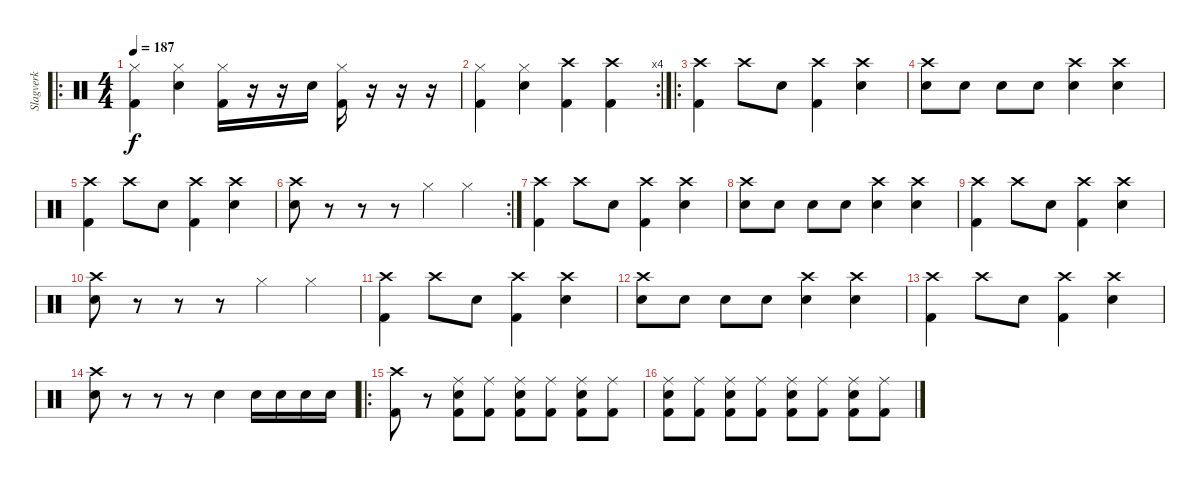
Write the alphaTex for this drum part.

\track ("Slagverk" "Slagverk") {instrument percussion}
\staff {score}
\articulation defaults
\ro
\ts (4 4)
\tempo 187
\clef neutral
\ks c
("Hi-Hat (closed)" "Kick (hit) 2").4{dy f} ("Hi-Hat (closed)" "Electric Snare (hit)").4 ("Hi-Hat (closed)" "Kick (hit) 2").16 r.16 r.16 "Electric Snare (hit)".16 ("Hi-Hat (closed)" "Kick (hit) 2").16 r.16 r.16 r.16 |
\rc 4
("Hi-Hat (closed)" "Kick (hit) 2").4 ("Hi-Hat (closed)" "Electric Snare (hit)").4 ("Crash high (hit)" "Kick (hit) 2").4 ("Crash high (hit)" "Kick (hit) 2").4 |
\ro
("Crash high (hit)" "Kick (hit) 2").4 "Crash high (hit)".8 "Electric Snare (hit)".8 ("Crash high (hit)" "Kick (hit) 2").4 ("Crash high (hit)" "Electric Snare (hit)").4 |
("Electric Snare (hit)" "Crash high (hit)").8 "Electric Snare (hit)".8 "Electric Snare (hit)".8 "Electric Snare (hit)".8 ("Electric Snare (hit)" "Crash high (hit)").4 ("Electric Snare (hit)" "Crash high (hit)").4 |
("Crash high (hit)" "Kick (hit) 2").4 "Crash high (hit)".8 "Electric Snare (hit)".8 ("Crash high (hit)" "Kick (hit) 2").4 ("Crash high (hit)" "Electric Snare (hit)").4 |
\rc 2
("Electric Snare (hit)" "Crash high (hit)").8 r.8 r.8 r.8 "Hi-Hat (closed)".4 "Hi-Hat (closed)".4 |
("Crash high (hit)" "Kick (hit) 2").4 "Crash high (hit)".8 "Electric Snare (hit)".8 ("Crash high (hit)" "Kick (hit) 2").4 ("Crash high (hit)" "Electric Snare (hit)").4 |
("Electric Snare (hit)" "Crash high (hit)").8 "Electric Snare (hit)".8 "Electric Snare (hit)".8 "Electric Snare (hit)".8 ("Electric Snare (hit)" "Crash high (hit)").4 ("Electric Snare (hit)" "Crash high (hit)").4 |
("Crash high (hit)" "Kick (hit) 2").4 "Crash high (hit)".8 "Electric Snare (hit)".8 ("Crash high (hit)" "Kick (hit) 2").4 ("Crash high (hit)" "Electric Snare (hit)").4 |
("Electric Snare (hit)" "Crash high (hit)").8 r.8 r.8 r.8 "Hi-Hat (closed)".4 "Hi-Hat (closed)".4 |
("Crash high (hit)" "Kick (hit) 2").4 "Crash high (hit)".8 "Electric Snare (hit)".8 ("Crash high (hit)" "Kick (hit) 2").4 ("Crash high (hit)" "Electric Snare (hit)").4 |
("Electric Snare (hit)" "Crash high (hit)").8 "Electric Snare (hit)".8 "Electric Snare (hit)".8 "Electric Snare (hit)".8 ("Electric Snare (hit)" "Crash high (hit)").4 ("Electric Snare (hit)" "Crash high (hit)").4 |
("Crash high (hit)" "Kick (hit) 2").4 "Crash high (hit)".8 "Electric Snare (hit)".8 ("Crash high (hit)" "Kick (hit) 2").4 ("Crash high (hit)" "Electric Snare (hit)").4 |
("Electric Snare (hit)" "Crash high (hit)").8 r.8 r.8 r.8 "Electric Snare (hit)".4 "Electric Snare (hit)".16 "Electric Snare (hit)".16 "Electric Snare (hit)".16 "Electric Snare (hit)".16 |
\ro
("Crash high (hit)" "Kick (hit) 2").8 r.8 ("Ride (middle)" "Kick (hit) 2" "Electric Snare (hit)").8 ("Ride (middle)" "Kick (hit) 2").8 ("Ride (middle)" "Kick (hit) 2" "Electric Snare (hit)").8 ("Ride (middle)" "Kick (hit) 2").8 ("Ride (middle)" "Kick (hit) 2" "Electric Snare (hit)").8 ("Ride (middle)" "Kick (hit) 2").8 |
("Ride (middle)" "Electric Snare (hit)" "Kick (hit) 2").8 ("Ride (middle)" "Kick (hit) 2").8 ("Ride (middle)" "Electric Snare (hit)" "Kick (hit) 2").8 ("Ride (middle)" "Kick (hit) 2").8 ("Ride (middle)" "Electric Snare (hit)" "Kick (hit) 2").8 ("Ride (middle)" "Kick (hit) 2").8 ("Ride (middle)" "Electric Snare (hit)" "Kick (hit) 2").8 ("Ride (middle)" "Kick (hit) 2").8
